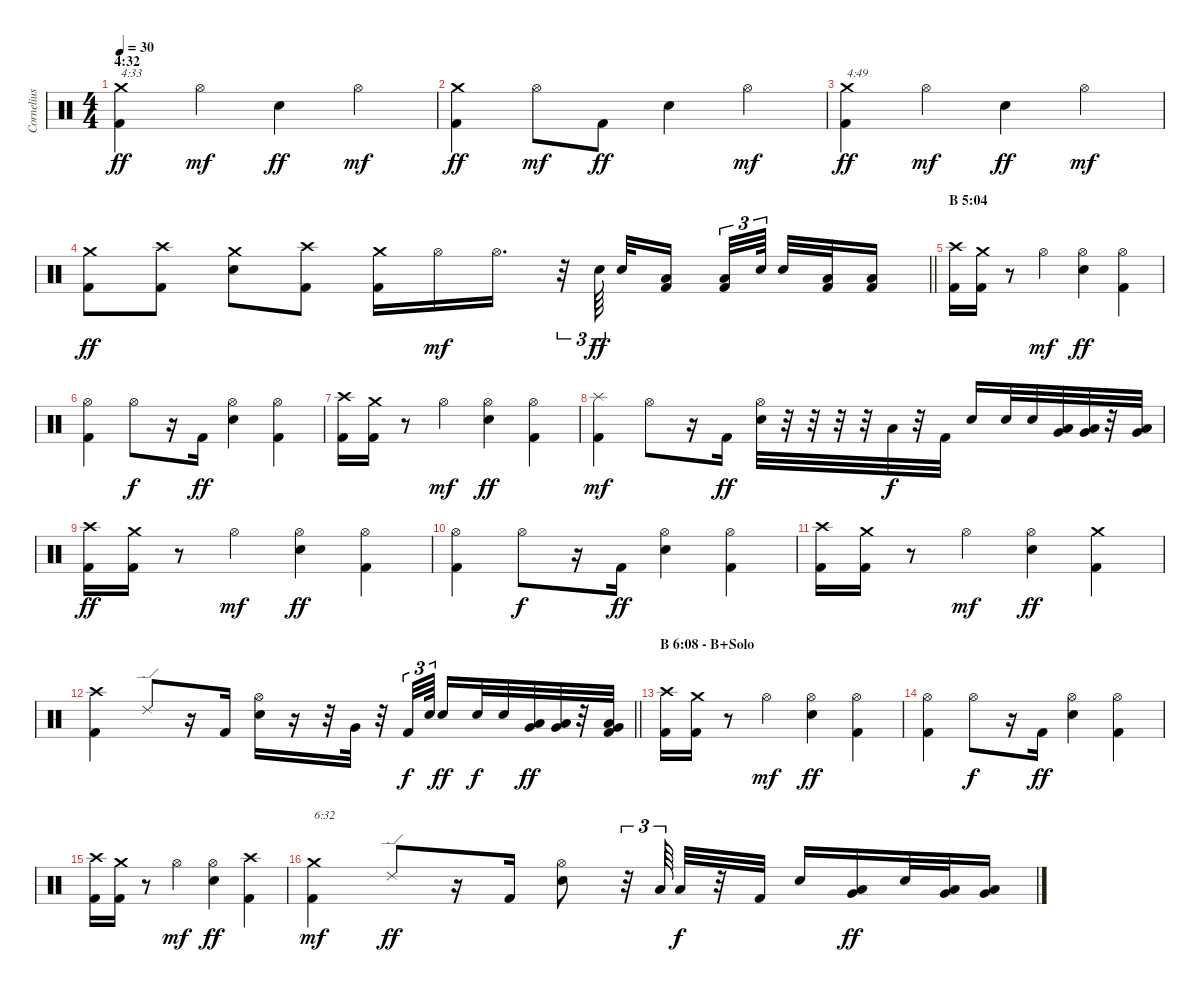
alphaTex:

\track ("Cornelius Althammer (Drums)" "Cornelius ") {instrument percussion}
\staff {score}
\articulation defaults
\ts (4 4)
\section ("" "4:32")
\tempo 30
\clef neutral
\ks c
("Crash medium (hit)" "Kick (hit) 2").4{txt "4:33" dy ff} "Hi-Hat (open)".4{dy mf} "Electric Snare (hit)".4{dy ff} "Hi-Hat (open)".4{dy mf} |
("Crash medium (hit)" "Kick (hit) 2").4{dy ff} "Hi-Hat (open)".8{dy mf} "Kick (hit) 2".8{dy ff} "Electric Snare (hit)".4 "Hi-Hat (open)".4{dy mf} |
("Crash medium (hit)" "Kick (hit) 2").4{txt "4:49" dy ff} "Hi-Hat (open)".4{dy mf} "Electric Snare (hit)".4{dy ff} "Hi-Hat (open)".4{dy mf} |
\barLineRight lightlight
("Crash medium (hit)" "Kick (hit) 2").8{dy ff} ("Crash high (hit)" "Kick (hit) 2").8 ("Crash medium (hit)" "Electric Snare (hit)").8 ("Crash high (hit)" "Kick (hit) 2").8 ("Crash medium (hit)" "Kick (hit) 2").16 "Hi-Hat (open)".16{dy mf} "Hi-Hat (open)".16{d} r.32{tu (3 2)} "Electric Snare (hit)".64{tu (3 2) dy ff} "Electric Snare (hit)".32 ("Low Tom (hit)" "Kick (hit) 2").16{beam splitsecondary} ("Low Tom (hit)" "Kick (hit) 2").32{tu (3 2)} "Electric Snare (hit)".64{tu (3 2) beam splitsecondary} "Electric Snare (hit)".32 ("Low Tom (hit)" "Kick (hit) 2").32 ("Low Tom (hit)" "Kick (hit) 2").16 |
\section ("" "B 5:04")
("Crash high (hit)" "Kick (hit) 2").16 ("Crash medium (hit)" "Kick (hit) 2").16 r.8 "Hi-Hat (open)".4{dy mf} ("Hi-Hat (open)" "Electric Snare (hit)").4{dy ff} ("Hi-Hat (open)" "Kick (hit) 2").4 |
("Hi-Hat (open)" "Kick (hit) 2").4 "Hi-Hat (open)".8{dy f} r.16 "Kick (hit) 2".16{dy ff} ("Hi-Hat (open)" "Electric Snare (hit)").4 ("Hi-Hat (open)" "Kick (hit) 2").4 |
("Crash high (hit)" "Kick (hit) 2").16 ("Crash medium (hit)" "Kick (hit) 2").16 r.8 "Hi-Hat (open)".4{dy mf} ("Hi-Hat (open)" "Electric Snare (hit)").4{dy ff} ("Hi-Hat (open)" "Kick (hit) 2").4 |
("Splash (hit)" "Kick (hit) 2").4{dy mf} "Hi-Hat (open)".8 r.16 "Kick (hit) 2".16{dy ff} ("Hi-Hat (open)" "Electric Snare (hit)").32 r.32 r.32 r.32 r.32 "Low Tom (hit)".32{dy f} r.32 "Kick (hit) 2".32 "Electric Snare (hit)".16 "Electric Snare (hit)".32 "Electric Snare (hit)".32 ("Low Tom (hit)" "Very Low Tom (hit)").32 ("Low Tom (hit)" "Very Low Tom (hit)").32 r.32 ("Low Tom (hit)" "Very Low Tom (hit)").32 |
("Crash high (hit)" "Kick (hit) 2").16{dy ff} ("Crash medium (hit)" "Kick (hit) 2").16 r.8 "Hi-Hat (open)".4{dy mf} ("Hi-Hat (open)" "Electric Snare (hit)").4{dy ff} ("Hi-Hat (open)" "Kick (hit) 2").4 |
("Hi-Hat (open)" "Kick (hit) 2").4 "Hi-Hat (open)".8{dy f} r.16 "Kick (hit) 2".16{dy ff} ("Hi-Hat (open)" "Electric Snare (hit)").4 ("Hi-Hat (open)" "Kick (hit) 2").4 |
("Crash high (hit)" "Kick (hit) 2").16 ("Crash medium (hit)" "Kick (hit) 2").16 r.8 "Hi-Hat (open)".4{dy mf} ("Hi-Hat (open)" "Electric Snare (hit)").4{dy ff} ("Crash medium (hit)" "Kick (hit) 2").4 |
\barLineRight lightlight
("Crash high (hit)" "Kick (hit) 2").4 "Ride (edge) 2".8 r.16 "Kick (hit) 2".16 ("Hi-Hat (open)" "Electric Snare (hit)").16 r.16 r.32 "Very Low Tom (hit)".32 r.32 "Kick (hit) 2".32{tu (3 2) dy f} "Electric Snare (hit)".64{tu (3 2)} "Electric Snare (hit)".16{dy ff} "Electric Snare (hit)".32{dy f} "Electric Snare (hit)".32 ("Very Low Tom (hit)" "Low Tom (hit)").32{dy ff} ("Very Low Tom (hit)" "Low Tom (hit)").32 r.32 ("Low Floor Tom (hit)" "Very Low Tom (hit)" "Kick (hit) 2").32 |
\section ("" "B 6:08 - B+Solo")
("Crash high (hit)" "Kick (hit) 2").16 ("Crash medium (hit)" "Kick (hit) 2").16 r.8 "Hi-Hat (open)".4{dy mf} ("Hi-Hat (open)" "Electric Snare (hit)").4{dy ff} ("Hi-Hat (open)" "Kick (hit) 2").4 |
("Hi-Hat (open)" "Kick (hit) 2").4 "Hi-Hat (open)".8{dy f} r.16 "Kick (hit) 2".16{dy ff} ("Hi-Hat (open)" "Electric Snare (hit)").4 ("Hi-Hat (open)" "Kick (hit) 2").4 |
("Crash high (hit)" "Kick (hit) 2").16 ("Crash medium (hit)" "Kick (hit) 2").16 r.8 "Hi-Hat (open)".4{dy mf} ("Hi-Hat (open)" "Electric Snare (hit)").4{dy ff} ("Crash high (hit)" "Kick (hit) 2").4 |
("Crash medium (hit)" "Kick (hit) 2").4{txt "6:32" dy mf} "Ride (edge) 2".8{dy ff} r.16 "Kick (hit) 2".16 ("Hi-Hat (open)" "Electric Snare (hit)").8 r.32{tu (3 2)} "Low Tom (hit)".64{tu (3 2)} "Low Tom (hit)".32{dy f} r.32 "Kick (hit) 2".32 "Electric Snare (hit)".16 ("Low Tom (hit)" "Very Low Tom (hit)").16{dy ff} "Electric Snare (hit)".32 ("Low Tom (hit)" "Very Low Tom (hit)").32 ("Very Low Tom (hit)" "Low Floor Tom (hit)").16
